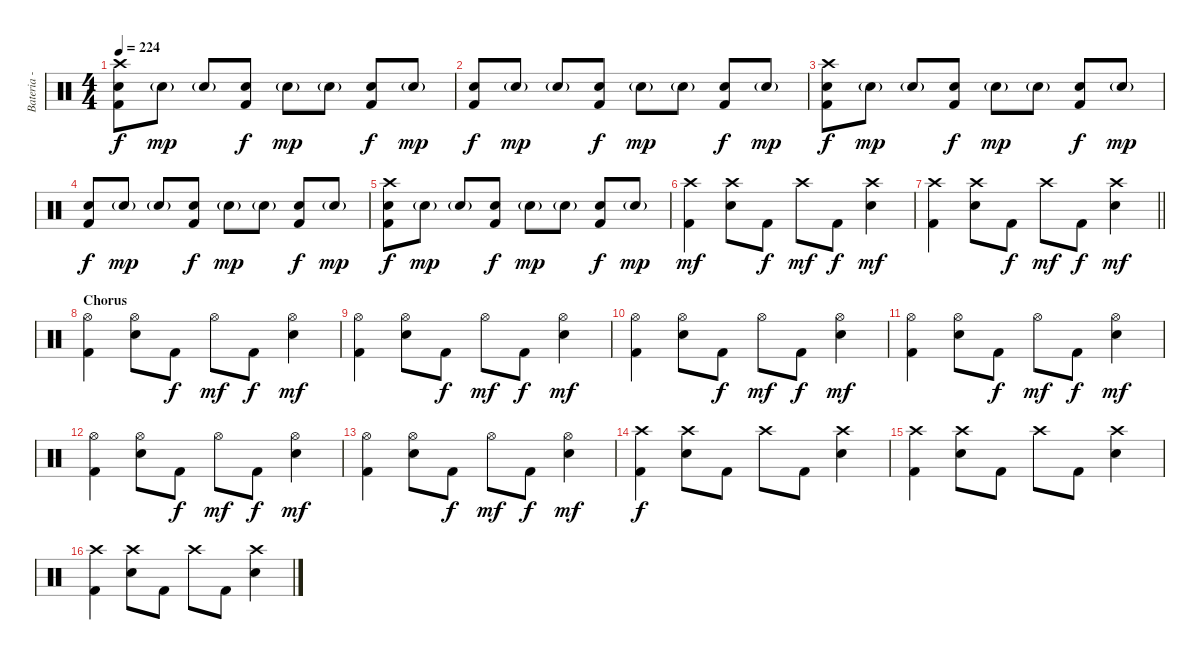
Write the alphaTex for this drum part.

\track ("Bateria - Larzon" "Bateria - ") {instrument percussion}
\staff {score}
\articulation defaults
\ts (4 4)
\tempo 224
\clef neutral
\ks c
("Electric Snare (hit)" "Kick (hit) 2" "Crash high (hit)").8{dy f} "Electric Snare (hit)"{g}.8{dy mp} "Electric Snare (hit)"{g}.8 ("Electric Snare (hit)" "Kick (hit) 2").8{dy f} "Electric Snare (hit)"{g}.8{dy mp} "Electric Snare (hit)"{g}.8 ("Electric Snare (hit)" "Kick (hit) 2").8{dy f} "Electric Snare (hit)"{g}.8{dy mp} |
("Electric Snare (hit)" "Kick (hit) 2").8{dy f} "Electric Snare (hit)"{g}.8{dy mp} "Electric Snare (hit)"{g}.8 ("Electric Snare (hit)" "Kick (hit) 2").8{dy f} "Electric Snare (hit)"{g}.8{dy mp} "Electric Snare (hit)"{g}.8 ("Electric Snare (hit)" "Kick (hit) 2").8{dy f} "Electric Snare (hit)"{g}.8{dy mp} |
("Electric Snare (hit)" "Kick (hit) 2" "Crash high (hit)").8{dy f} "Electric Snare (hit)"{g}.8{dy mp} "Electric Snare (hit)"{g}.8 ("Electric Snare (hit)" "Kick (hit) 2").8{dy f} "Electric Snare (hit)"{g}.8{dy mp} "Electric Snare (hit)"{g}.8 ("Electric Snare (hit)" "Kick (hit) 2").8{dy f} "Electric Snare (hit)"{g}.8{dy mp} |
("Electric Snare (hit)" "Kick (hit) 2").8{dy f} "Electric Snare (hit)"{g}.8{dy mp} "Electric Snare (hit)"{g}.8 ("Electric Snare (hit)" "Kick (hit) 2").8{dy f} "Electric Snare (hit)"{g}.8{dy mp} "Electric Snare (hit)"{g}.8 ("Electric Snare (hit)" "Kick (hit) 2").8{dy f} "Electric Snare (hit)"{g}.8{dy mp} |
("Electric Snare (hit)" "Kick (hit) 2" "Crash high (hit)").8{dy f} "Electric Snare (hit)"{g}.8{dy mp} "Electric Snare (hit)"{g}.8 ("Electric Snare (hit)" "Kick (hit) 2").8{dy f} "Electric Snare (hit)"{g}.8{dy mp} "Electric Snare (hit)"{g}.8 ("Electric Snare (hit)" "Kick (hit) 2").8{dy f} "Electric Snare (hit)"{g}.8{dy mp} |
("Kick (hit) 2" "Crash high (hit)").4{dy mf} ("Electric Snare (hit)" "Crash high (hit)").8 "Kick (hit) 2".8{dy f} "Crash high (hit)".8{dy mf} "Kick (hit) 2".8{dy f} ("Electric Snare (hit)" "Crash high (hit)").4{dy mf} |
\barLineRight lightlight
("Kick (hit) 2" "Crash high (hit)").4 ("Electric Snare (hit)" "Crash high (hit)").8 "Kick (hit) 2".8{dy f} "Crash high (hit)".8{dy mf} "Kick (hit) 2".8{dy f} ("Electric Snare (hit)" "Crash high (hit)").4{dy mf} |
\section ("" "Chorus")
("Kick (hit) 2" "Hi-Hat (open)").4 ("Electric Snare (hit)" "Hi-Hat (open)").8 "Kick (hit) 2".8{dy f} "Hi-Hat (open)".8{dy mf} "Kick (hit) 2".8{dy f} ("Electric Snare (hit)" "Hi-Hat (open)").4{dy mf} |
("Kick (hit) 2" "Hi-Hat (open)").4 ("Electric Snare (hit)" "Hi-Hat (open)").8 "Kick (hit) 2".8{dy f} "Hi-Hat (open)".8{dy mf} "Kick (hit) 2".8{dy f} ("Electric Snare (hit)" "Hi-Hat (open)").4{dy mf} |
("Kick (hit) 2" "Hi-Hat (open)").4 ("Electric Snare (hit)" "Hi-Hat (open)").8 "Kick (hit) 2".8{dy f} "Hi-Hat (open)".8{dy mf} "Kick (hit) 2".8{dy f} ("Electric Snare (hit)" "Hi-Hat (open)").4{dy mf} |
("Kick (hit) 2" "Hi-Hat (open)").4 ("Electric Snare (hit)" "Hi-Hat (open)").8 "Kick (hit) 2".8{dy f} "Hi-Hat (open)".8{dy mf} "Kick (hit) 2".8{dy f} ("Electric Snare (hit)" "Hi-Hat (open)").4{dy mf} |
("Kick (hit) 2" "Hi-Hat (open)").4 ("Electric Snare (hit)" "Hi-Hat (open)").8 "Kick (hit) 2".8{dy f} "Hi-Hat (open)".8{dy mf} "Kick (hit) 2".8{dy f} ("Electric Snare (hit)" "Hi-Hat (open)").4{dy mf} |
("Kick (hit) 2" "Hi-Hat (open)").4 ("Electric Snare (hit)" "Hi-Hat (open)").8 "Kick (hit) 2".8{dy f} "Hi-Hat (open)".8{dy mf} "Kick (hit) 2".8{dy f} ("Electric Snare (hit)" "Hi-Hat (open)").4{dy mf} |
("Kick (hit) 2" "Crash high (hit)").4{dy f} ("Electric Snare (hit)" "Crash high (hit)").8 "Kick (hit) 2".8 "Crash high (hit)".8 "Kick (hit) 2".8 ("Electric Snare (hit)" "Crash high (hit)").4 |
("Kick (hit) 2" "Crash high (hit)").4 ("Electric Snare (hit)" "Crash high (hit)").8 "Kick (hit) 2".8 "Crash high (hit)".8 "Kick (hit) 2".8 ("Electric Snare (hit)" "Crash high (hit)").4 |
("Kick (hit) 2" "Crash high (hit)").4 ("Electric Snare (hit)" "Crash high (hit)").8 "Kick (hit) 2".8 "Crash high (hit)".8 "Kick (hit) 2".8 ("Electric Snare (hit)" "Crash high (hit)").4
